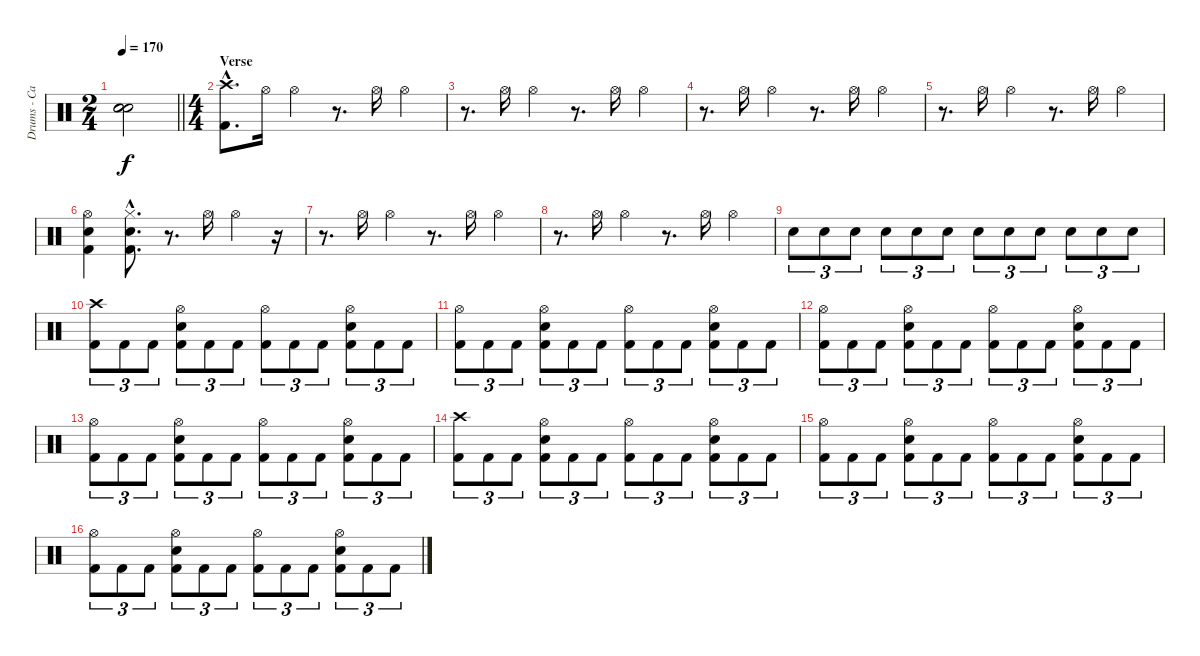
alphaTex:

\track ("Drums - Casey Grillo" "Drums - Ca") {instrument percussion}
\staff {score}
\articulation defaults
\ts (2 4)
\tempo 170
\clef neutral
\barLineRight lightlight
\ks c
("Snare (hit)"{t} "Snare (hit)"{t} "Snare (hit)"{t}).2{dy f} |
\ts (4 4)
\section ("" "Verse")
("Crash high (hit)"{hac} "Kick (hit) 2"{hac}).8{d} "Hi-Hat (open)".16 "Hi-Hat (open)".4 r.8{d} "Hi-Hat (open)".16 "Hi-Hat (open)".4 |
r.8{d} "Hi-Hat (open)".16 "Hi-Hat (open)".4 r.8{d} "Hi-Hat (open)".16 "Hi-Hat (open)".4 |
r.8{d} "Hi-Hat (open)".16 "Hi-Hat (open)".4 r.8{d} "Hi-Hat (open)".16 "Hi-Hat (open)".4 |
r.8{d} "Hi-Hat (open)".16 "Hi-Hat (open)".4 r.8{d} "Hi-Hat (open)".16 "Hi-Hat (open)".4 |
("Hi-Hat (open)" "Snare (hit) 2" "Kick (hit) 2").4 ("Hi-Hat (closed)"{hac} "Snare (hit) 2"{hac} "Kick (hit) 2"{hac}).8{d} r.8{d} "Hi-Hat (open)".16 "Hi-Hat (open)".4 r.16 |
r.8{d} "Hi-Hat (open)".16 "Hi-Hat (open)".4 r.8{d} "Hi-Hat (open)".16 "Hi-Hat (open)".4 |
r.8{d} "Hi-Hat (open)".16 "Hi-Hat (open)".4 r.8{d} "Hi-Hat (open)".16 "Hi-Hat (open)".4 |
"Snare (hit) 2".8{tu (3 2)} "Snare (hit) 2".8{tu (3 2)} "Snare (hit) 2".8{tu (3 2)} "Snare (hit) 2".8{tu (3 2)} "Snare (hit) 2".8{tu (3 2)} "Snare (hit) 2".8{tu (3 2)} "Snare (hit) 2".8{tu (3 2)} "Snare (hit) 2".8{tu (3 2)} "Snare (hit) 2".8{tu (3 2)} "Snare (hit) 2".8{tu (3 2)} "Snare (hit) 2".8{tu (3 2)} "Snare (hit) 2".8{tu (3 2)} |
("Crash high (hit)" "Kick (hit) 2").8{tu (3 2)} "Kick (hit) 2".8{tu (3 2)} "Kick (hit) 2".8{tu (3 2)} ("Hi-Hat (open)" "Snare (hit) 2" "Kick (hit) 2").8{tu (3 2)} "Kick (hit) 2".8{tu (3 2)} "Kick (hit) 2".8{tu (3 2)} ("Hi-Hat (open)" "Kick (hit) 2").8{tu (3 2)} "Kick (hit) 2".8{tu (3 2)} "Kick (hit) 2".8{tu (3 2)} ("Hi-Hat (open)" "Snare (hit) 2" "Kick (hit) 2").8{tu (3 2)} "Kick (hit) 2".8{tu (3 2)} "Kick (hit) 2".8{tu (3 2)} |
("Hi-Hat (open)" "Kick (hit) 2").8{tu (3 2)} "Kick (hit) 2".8{tu (3 2)} "Kick (hit) 2".8{tu (3 2)} ("Hi-Hat (open)" "Snare (hit) 2" "Kick (hit) 2").8{tu (3 2)} "Kick (hit) 2".8{tu (3 2)} "Kick (hit) 2".8{tu (3 2)} ("Hi-Hat (open)" "Kick (hit) 2").8{tu (3 2)} "Kick (hit) 2".8{tu (3 2)} "Kick (hit) 2".8{tu (3 2)} ("Hi-Hat (open)" "Snare (hit) 2" "Kick (hit) 2").8{tu (3 2)} "Kick (hit) 2".8{tu (3 2)} "Kick (hit) 2".8{tu (3 2)} |
("Hi-Hat (open)" "Kick (hit) 2").8{tu (3 2)} "Kick (hit) 2".8{tu (3 2)} "Kick (hit) 2".8{tu (3 2)} ("Hi-Hat (open)" "Snare (hit) 2" "Kick (hit) 2").8{tu (3 2)} "Kick (hit) 2".8{tu (3 2)} "Kick (hit) 2".8{tu (3 2)} ("Hi-Hat (open)" "Kick (hit) 2").8{tu (3 2)} "Kick (hit) 2".8{tu (3 2)} "Kick (hit) 2".8{tu (3 2)} ("Hi-Hat (open)" "Snare (hit) 2" "Kick (hit) 2").8{tu (3 2)} "Kick (hit) 2".8{tu (3 2)} "Kick (hit) 2".8{tu (3 2)} |
("Hi-Hat (open)" "Kick (hit) 2").8{tu (3 2)} "Kick (hit) 2".8{tu (3 2)} "Kick (hit) 2".8{tu (3 2)} ("Hi-Hat (open)" "Snare (hit) 2" "Kick (hit) 2").8{tu (3 2)} "Kick (hit) 2".8{tu (3 2)} "Kick (hit) 2".8{tu (3 2)} ("Hi-Hat (open)" "Kick (hit) 2").8{tu (3 2)} "Kick (hit) 2".8{tu (3 2)} "Kick (hit) 2".8{tu (3 2)} ("Hi-Hat (open)" "Snare (hit) 2" "Kick (hit) 2").8{tu (3 2)} "Kick (hit) 2".8{tu (3 2)} "Kick (hit) 2".8{tu (3 2)} |
("Crash high (hit)" "Kick (hit) 2").8{tu (3 2)} "Kick (hit) 2".8{tu (3 2)} "Kick (hit) 2".8{tu (3 2)} ("Hi-Hat (open)" "Snare (hit) 2" "Kick (hit) 2").8{tu (3 2)} "Kick (hit) 2".8{tu (3 2)} "Kick (hit) 2".8{tu (3 2)} ("Hi-Hat (open)" "Kick (hit) 2").8{tu (3 2)} "Kick (hit) 2".8{tu (3 2)} "Kick (hit) 2".8{tu (3 2)} ("Hi-Hat (open)" "Snare (hit) 2" "Kick (hit) 2").8{tu (3 2)} "Kick (hit) 2".8{tu (3 2)} "Kick (hit) 2".8{tu (3 2)} |
("Hi-Hat (open)" "Kick (hit) 2").8{tu (3 2)} "Kick (hit) 2".8{tu (3 2)} "Kick (hit) 2".8{tu (3 2)} ("Hi-Hat (open)" "Snare (hit) 2" "Kick (hit) 2").8{tu (3 2)} "Kick (hit) 2".8{tu (3 2)} "Kick (hit) 2".8{tu (3 2)} ("Hi-Hat (open)" "Kick (hit) 2").8{tu (3 2)} "Kick (hit) 2".8{tu (3 2)} "Kick (hit) 2".8{tu (3 2)} ("Hi-Hat (open)" "Snare (hit) 2" "Kick (hit) 2").8{tu (3 2)} "Kick (hit) 2".8{tu (3 2)} "Kick (hit) 2".8{tu (3 2)} |
("Hi-Hat (open)" "Kick (hit) 2").8{tu (3 2)} "Kick (hit) 2".8{tu (3 2)} "Kick (hit) 2".8{tu (3 2)} ("Hi-Hat (open)" "Snare (hit) 2" "Kick (hit) 2").8{tu (3 2)} "Kick (hit) 2".8{tu (3 2)} "Kick (hit) 2".8{tu (3 2)} ("Hi-Hat (open)" "Kick (hit) 2").8{tu (3 2)} "Kick (hit) 2".8{tu (3 2)} "Kick (hit) 2".8{tu (3 2)} ("Hi-Hat (open)" "Snare (hit) 2" "Kick (hit) 2").8{tu (3 2)} "Kick (hit) 2".8{tu (3 2)} "Kick (hit) 2".8{tu (3 2)}
